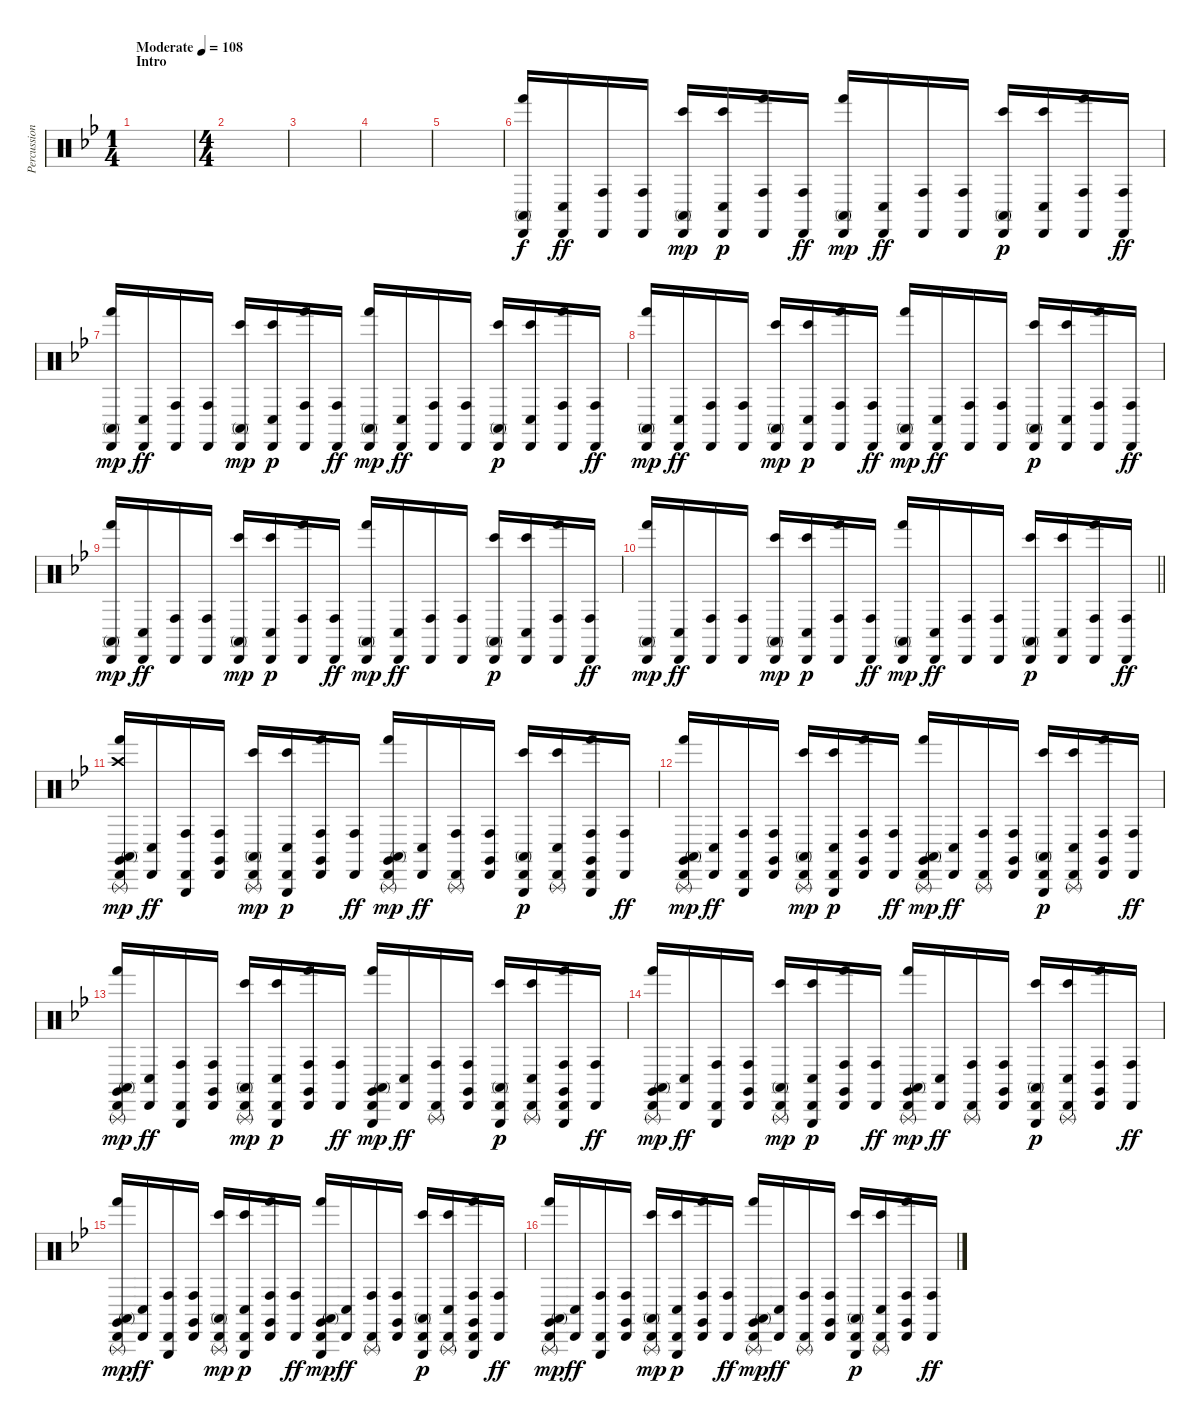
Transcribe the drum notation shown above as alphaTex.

\track ("Percussion" "Percussion") {instrument percussion}
\staff {score}
\articulation defaults
\ts (1 4)
\section ("" "Intro")
\tempo (108 "Moderate")
\clef neutral
\ks gminor
|
\ts (4 4)
|
|
|
|
("Cabasa (hit)" "Conga high (mute)" "Hand (hit)").16 ("Cabasa (hit)" "Conga low (hit)").16{dy ff} ("Cabasa (hit)" "Conga high (hit)").16 ("Cabasa (hit)" "Conga high (hit)").16 ("Cabasa (hit)" "Conga high (mute)" "Bongo High (hit)").16{dy mp} ("Cabasa (hit)" "Conga low (hit)" "Bongo High (hit)").16{dy p} ("Cabasa (hit)" "Conga high (hit)" "Hand (hit)").16 ("Cabasa (hit)" "Conga high (hit)").16{dy ff} ("Cabasa (hit)" "Conga high (mute)" "Hand (hit)").16{dy mp} ("Cabasa (hit)" "Conga low (hit)").16{dy ff} ("Cabasa (hit)" "Conga high (hit)").16 ("Cabasa (hit)" "Conga high (hit)").16 ("Cabasa (hit)" "Conga high (mute)" "Bongo High (hit)").16{dy p} ("Cabasa (hit)" "Conga low (hit)" "Bongo High (hit)").16 ("Cabasa (hit)" "Conga high (hit)" "Hand (hit)").16 ("Cabasa (hit)" "Conga high (hit)").16{dy ff} |
("Cabasa (hit)" "Conga high (mute)" "Hand (hit)").16{dy mp} ("Cabasa (hit)" "Conga low (hit)").16{dy ff} ("Cabasa (hit)" "Conga high (hit)").16 ("Cabasa (hit)" "Conga high (hit)").16 ("Cabasa (hit)" "Conga high (mute)" "Bongo High (hit)").16{dy mp} ("Cabasa (hit)" "Conga low (hit)" "Bongo High (hit)").16{dy p} ("Cabasa (hit)" "Conga high (hit)" "Hand (hit)").16 ("Cabasa (hit)" "Conga high (hit)").16{dy ff} ("Cabasa (hit)" "Conga high (mute)" "Hand (hit)").16{dy mp} ("Cabasa (hit)" "Conga low (hit)").16{dy ff} ("Cabasa (hit)" "Conga high (hit)").16 ("Cabasa (hit)" "Conga high (hit)").16 ("Cabasa (hit)" "Conga high (mute)" "Bongo High (hit)").16{dy p} ("Cabasa (hit)" "Conga low (hit)" "Bongo High (hit)").16 ("Cabasa (hit)" "Conga high (hit)" "Hand (hit)").16 ("Cabasa (hit)" "Conga high (hit)").16{dy ff} |
("Cabasa (hit)" "Conga high (mute)" "Hand (hit)").16{dy mp} ("Cabasa (hit)" "Conga low (hit)").16{dy ff} ("Cabasa (hit)" "Conga high (hit)").16 ("Cabasa (hit)" "Conga high (hit)").16 ("Cabasa (hit)" "Conga high (mute)" "Bongo High (hit)").16{dy mp} ("Cabasa (hit)" "Conga low (hit)" "Bongo High (hit)").16{dy p} ("Cabasa (hit)" "Conga high (hit)" "Hand (hit)").16 ("Cabasa (hit)" "Conga high (hit)").16{dy ff} ("Cabasa (hit)" "Conga high (mute)" "Hand (hit)").16{dy mp} ("Cabasa (hit)" "Conga low (hit)").16{dy ff} ("Cabasa (hit)" "Conga high (hit)").16 ("Cabasa (hit)" "Conga high (hit)").16 ("Cabasa (hit)" "Conga high (mute)" "Bongo High (hit)").16{dy p} ("Cabasa (hit)" "Conga low (hit)" "Bongo High (hit)").16 ("Cabasa (hit)" "Conga high (hit)" "Hand (hit)").16 ("Cabasa (hit)" "Conga high (hit)").16{dy ff} |
("Cabasa (hit)" "Conga high (mute)" "Hand (hit)").16{dy mp} ("Cabasa (hit)" "Conga low (hit)").16{dy ff} ("Cabasa (hit)" "Conga high (hit)").16 ("Cabasa (hit)" "Conga high (hit)").16 ("Cabasa (hit)" "Conga high (mute)" "Bongo High (hit)").16{dy mp} ("Cabasa (hit)" "Conga low (hit)" "Bongo High (hit)").16{dy p} ("Cabasa (hit)" "Conga high (hit)" "Hand (hit)").16 ("Cabasa (hit)" "Conga high (hit)").16{dy ff} ("Cabasa (hit)" "Conga high (mute)" "Hand (hit)").16{dy mp} ("Cabasa (hit)" "Conga low (hit)").16{dy ff} ("Cabasa (hit)" "Conga high (hit)").16 ("Cabasa (hit)" "Conga high (hit)").16 ("Cabasa (hit)" "Conga high (mute)" "Bongo High (hit)").16{dy p} ("Cabasa (hit)" "Conga low (hit)" "Bongo High (hit)").16 ("Cabasa (hit)" "Conga high (hit)" "Hand (hit)").16 ("Cabasa (hit)" "Conga high (hit)").16{dy ff} |
\barLineRight lightlight
("Cabasa (hit)" "Conga high (mute)" "Hand (hit)").16{dy mp} ("Cabasa (hit)" "Conga low (hit)").16{dy ff} ("Cabasa (hit)" "Conga high (hit)").16 ("Cabasa (hit)" "Conga high (hit)").16 ("Cabasa (hit)" "Conga high (mute)" "Bongo High (hit)").16{dy mp} ("Cabasa (hit)" "Conga low (hit)" "Bongo High (hit)").16{dy p} ("Cabasa (hit)" "Conga high (hit)" "Hand (hit)").16 ("Cabasa (hit)" "Conga high (hit)").16{dy ff} ("Cabasa (hit)" "Conga high (mute)" "Hand (hit)").16{dy mp} ("Cabasa (hit)" "Conga low (hit)").16{dy ff} ("Cabasa (hit)" "Conga high (hit)").16 ("Cabasa (hit)" "Conga high (hit)").16 ("Cabasa (hit)" "Conga high (mute)" "Bongo High (hit)").16{dy p} ("Cabasa (hit)" "Conga low (hit)" "Bongo High (hit)").16 ("Cabasa (hit)" "Conga high (hit)" "Hand (hit)").16 ("Cabasa (hit)" "Conga high (hit)").16{dy ff} |
\section ("" "")
("Crash high (hit)" "Cabasa (hit)" "Triangle (rnute)" "Claves (hit)" "Conga high (mute)" "Hand (hit)").16{dy mp} ("Cabasa (hit)" "Conga low (hit)").16{dy ff} ("Cabasa (hit)" "Triangle (hit)" "Conga high (hit)").16 ("Cabasa (hit)" "Claves (hit)" "Conga high (hit)").16 ("Cabasa (hit)" "Triangle (rnute)" "Conga high (mute)" "Bongo High (hit)").16{dy mp} ("Cabasa (hit)" "Triangle (hit)" "Conga low (hit)" "Bongo High (hit)").16{dy p} ("Cabasa (hit)" "Claves (hit)" "Conga high (hit)" "Hand (hit)").16 ("Cabasa (hit)" "Conga high (hit)").16{dy ff} ("Cabasa (hit)" "Triangle (rnute)" "Claves (hit)" "Conga high (mute)" "Hand (hit)").16{dy mp} ("Cabasa (hit)" "Conga low (hit)").16{dy ff} ("Cabasa (hit)" "Triangle (rnute)" "Conga high (hit)").16 ("Cabasa (hit)" "Claves (hit)" "Conga high (hit)").16 ("Cabasa (hit)" "Triangle (hit)" "Conga high (mute)" "Bongo High (hit)").16{dy p} ("Cabasa (hit)" "Triangle (rnute)" "Conga low (hit)" "Bongo High (hit)").16 ("Cabasa (hit)" "Triangle (hit)" "Claves (hit)" "Conga high (hit)" "Hand (hit)").16 ("Cabasa (hit)" "Conga high (hit)").16{dy ff} |
("Cabasa (hit)" "Triangle (rnute)" "Claves (hit)" "Conga high (mute)" "Hand (hit)").16{dy mp} ("Cabasa (hit)" "Conga low (hit)").16{dy ff} ("Cabasa (hit)" "Triangle (hit)" "Conga high (hit)").16 ("Cabasa (hit)" "Claves (hit)" "Conga high (hit)").16 ("Cabasa (hit)" "Triangle (rnute)" "Conga high (mute)" "Bongo High (hit)").16{dy mp} ("Cabasa (hit)" "Triangle (hit)" "Conga low (hit)" "Bongo High (hit)").16{dy p} ("Cabasa (hit)" "Claves (hit)" "Conga high (hit)" "Hand (hit)").16 ("Cabasa (hit)" "Conga high (hit)").16{dy ff} ("Cabasa (hit)" "Triangle (rnute)" "Claves (hit)" "Conga high (mute)" "Hand (hit)").16{dy mp} ("Cabasa (hit)" "Conga low (hit)").16{dy ff} ("Cabasa (hit)" "Triangle (rnute)" "Conga high (hit)").16 ("Cabasa (hit)" "Claves (hit)" "Conga high (hit)").16 ("Cabasa (hit)" "Triangle (hit)" "Conga high (mute)" "Bongo High (hit)").16{dy p} ("Cabasa (hit)" "Triangle (rnute)" "Conga low (hit)" "Bongo High (hit)").16 ("Cabasa (hit)" "Claves (hit)" "Conga high (hit)" "Hand (hit)").16 ("Cabasa (hit)" "Conga high (hit)").16{dy ff} |
("Cabasa (hit)" "Claves (hit)" "Triangle (rnute)" "Conga high (mute)" "Hand (hit)").16{dy mp} ("Cabasa (hit)" "Conga low (hit)").16{dy ff} ("Cabasa (hit)" "Triangle (hit)" "Conga high (hit)").16 ("Cabasa (hit)" "Claves (hit)" "Conga high (hit)").16 ("Cabasa (hit)" "Triangle (rnute)" "Conga high (mute)" "Bongo High (hit)").16{dy mp} ("Cabasa (hit)" "Triangle (hit)" "Conga low (hit)" "Bongo High (hit)").16{dy p} ("Cabasa (hit)" "Claves (hit)" "Conga high (hit)" "Hand (hit)").16 ("Cabasa (hit)" "Conga high (hit)").16{dy ff} ("Cabasa (hit)" "Claves (hit)" "Triangle (hit)" "Conga high (mute)" "Hand (hit)").16{dy mp} ("Cabasa (hit)" "Conga low (hit)").16{dy ff} ("Cabasa (hit)" "Triangle (rnute)" "Conga high (hit)").16 ("Cabasa (hit)" "Claves (hit)" "Conga high (hit)").16 ("Cabasa (hit)" "Triangle (hit)" "Conga high (mute)" "Bongo High (hit)").16{dy p} ("Cabasa (hit)" "Triangle (rnute)" "Conga low (hit)" "Bongo High (hit)").16 ("Cabasa (hit)" "Claves (hit)" "Triangle (hit)" "Conga high (hit)" "Hand (hit)").16 ("Cabasa (hit)" "Conga high (hit)").16{dy ff} |
("Cabasa (hit)" "Triangle (rnute)" "Claves (hit)" "Conga high (mute)" "Hand (hit)").16{dy mp} ("Cabasa (hit)" "Conga low (hit)").16{dy ff} ("Cabasa (hit)" "Triangle (hit)" "Conga high (hit)").16 ("Cabasa (hit)" "Claves (hit)" "Conga high (hit)").16 ("Cabasa (hit)" "Triangle (rnute)" "Conga high (mute)" "Bongo High (hit)").16{dy mp} ("Cabasa (hit)" "Triangle (hit)" "Conga low (hit)" "Bongo High (hit)").16{dy p} ("Cabasa (hit)" "Claves (hit)" "Conga high (hit)" "Hand (hit)").16 ("Cabasa (hit)" "Conga high (hit)").16{dy ff} ("Cabasa (hit)" "Triangle (rnute)" "Claves (hit)" "Conga high (mute)" "Hand (hit)").16{dy mp} ("Cabasa (hit)" "Conga low (hit)").16{dy ff} ("Cabasa (hit)" "Triangle (rnute)" "Conga high (hit)").16 ("Cabasa (hit)" "Claves (hit)" "Conga high (hit)").16 ("Cabasa (hit)" "Triangle (hit)" "Conga high (mute)" "Bongo High (hit)").16{dy p} ("Cabasa (hit)" "Triangle (rnute)" "Conga low (hit)" "Bongo High (hit)").16 ("Cabasa (hit)" "Claves (hit)" "Conga high (hit)" "Hand (hit)").16 ("Cabasa (hit)" "Conga high (hit)").16{dy ff} |
("Cabasa (hit)" "Claves (hit)" "Triangle (rnute)" "Conga high (mute)" "Hand (hit)").16{dy mp} ("Cabasa (hit)" "Conga low (hit)").16{dy ff} ("Cabasa (hit)" "Triangle (hit)" "Conga high (hit)").16 ("Cabasa (hit)" "Claves (hit)" "Conga high (hit)").16 ("Cabasa (hit)" "Triangle (rnute)" "Conga high (mute)" "Bongo High (hit)").16{dy mp} ("Cabasa (hit)" "Triangle (hit)" "Conga low (hit)" "Bongo High (hit)").16{dy p} ("Cabasa (hit)" "Claves (hit)" "Conga high (hit)" "Hand (hit)").16 ("Cabasa (hit)" "Conga high (hit)").16{dy ff} ("Cabasa (hit)" "Claves (hit)" "Triangle (hit)" "Conga high (mute)" "Hand (hit)").16{dy mp} ("Cabasa (hit)" "Conga low (hit)").16{dy ff} ("Cabasa (hit)" "Triangle (rnute)" "Conga high (hit)").16 ("Cabasa (hit)" "Claves (hit)" "Conga high (hit)").16 ("Cabasa (hit)" "Triangle (hit)" "Conga high (mute)" "Bongo High (hit)").16{dy p} ("Cabasa (hit)" "Triangle (rnute)" "Conga low (hit)" "Bongo High (hit)").16 ("Cabasa (hit)" "Claves (hit)" "Triangle (hit)" "Conga high (hit)" "Hand (hit)").16 ("Cabasa (hit)" "Conga high (hit)").16{dy ff} |
("Cabasa (hit)" "Triangle (rnute)" "Claves (hit)" "Conga high (mute)" "Hand (hit)").16{dy mp} ("Cabasa (hit)" "Conga low (hit)").16{dy ff} ("Cabasa (hit)" "Triangle (hit)" "Conga high (hit)").16 ("Cabasa (hit)" "Claves (hit)" "Conga high (hit)").16 ("Cabasa (hit)" "Triangle (rnute)" "Conga high (mute)" "Bongo High (hit)").16{dy mp} ("Cabasa (hit)" "Triangle (hit)" "Conga low (hit)" "Bongo High (hit)").16{dy p} ("Cabasa (hit)" "Claves (hit)" "Conga high (hit)" "Hand (hit)").16 ("Cabasa (hit)" "Conga high (hit)").16{dy ff} ("Cabasa (hit)" "Triangle (rnute)" "Claves (hit)" "Conga high (mute)" "Hand (hit)").16{dy mp} ("Cabasa (hit)" "Conga low (hit)").16{dy ff} ("Cabasa (hit)" "Triangle (rnute)" "Conga high (hit)").16 ("Cabasa (hit)" "Claves (hit)" "Conga high (hit)").16 ("Cabasa (hit)" "Triangle (hit)" "Conga high (mute)" "Bongo High (hit)").16{dy p} ("Cabasa (hit)" "Triangle (rnute)" "Conga low (hit)" "Bongo High (hit)").16 ("Cabasa (hit)" "Claves (hit)" "Conga high (hit)" "Hand (hit)").16 ("Cabasa (hit)" "Conga high (hit)").16{dy ff}
